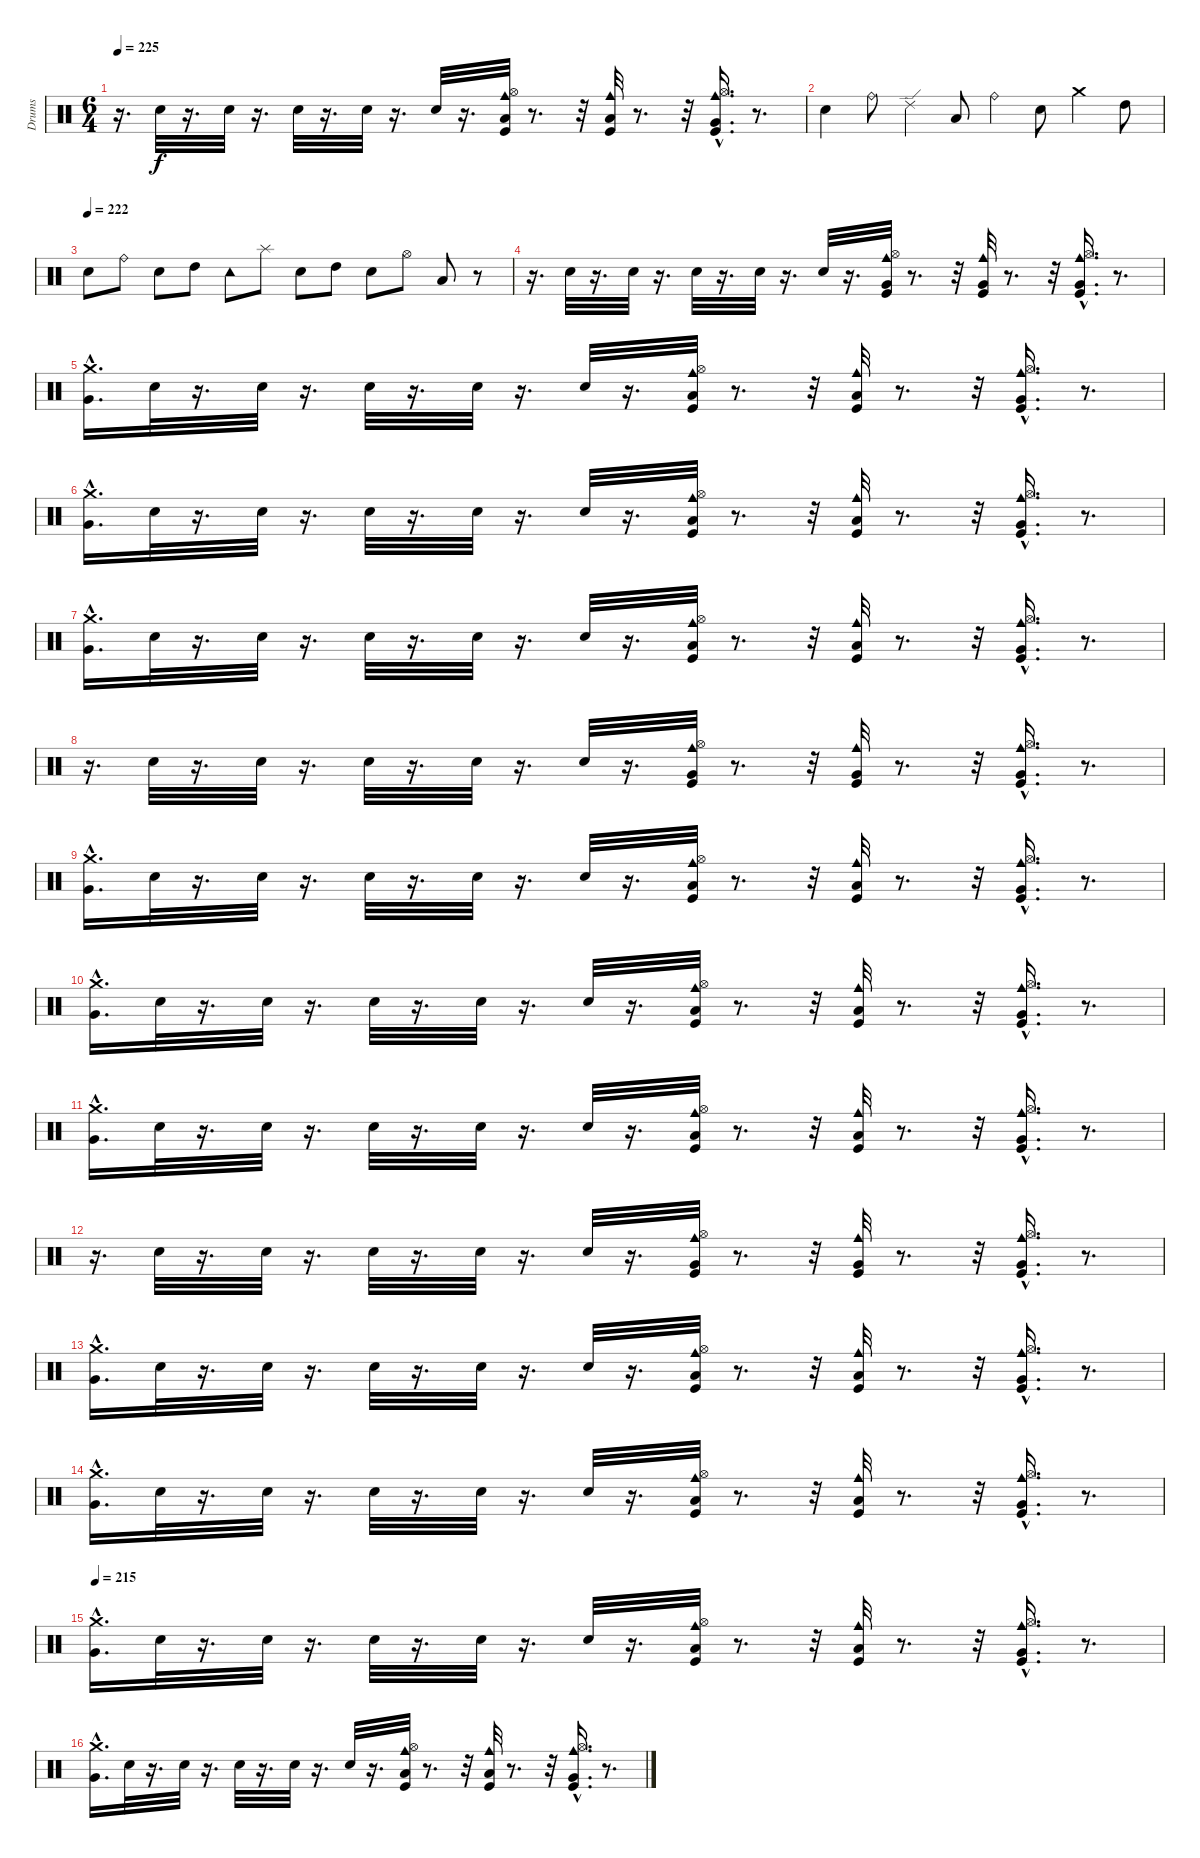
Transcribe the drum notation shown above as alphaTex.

\track ("Drums" "Drums") {instrument percussion}
\staff {score}
\articulation defaults
\ts (6 4)
\tempo 225
\clef neutral
\ks c
r.16{d dy f} "Snare (hit) 2".32 r.16{d} "Snare (hit) 2".32 r.16{d} "Snare (hit) 2".32 r.16{d} "Snare (hit) 2".32 r.16{d} "Snare (hit) 2".32 r.16{d} ("Kick (hit)" "Hi-Hat (open)" "Cowbell medium (hit)" "Low Floor Tom (hit)").32 r.8{d} r.32 ("Cowbell medium (hit)" "Kick (hit)" "Low Floor Tom (hit)").32 r.8{d} r.32 ("Hi-Hat (open)"{hac} "Kick (hit)" "Cowbell medium (hit)" "Very Low Tom (hit)").16{d} r.8{d} |
"Electric Snare (hit)".4 "Ride (bell)".8 "Ride (edge) 2".4 "Low Tom (hit)".8 "Ride (bell)".4 "Electric Snare (hit)".8 "Crash medium (hit)".4 "High Tom (hit)".8 |
\tempo (222)
"Snare (hit) 2".8 "Ride (bell)".8 "Snare (hit) 2".8 "High Tom (hit)".8 "Tambourine (hit)".8 "Splash (hit)".8 "Snare (hit) 2".8 "High Tom (hit)".8 "Snare (hit) 2".8 "Hi-Hat (open)".8 "Low Tom (hit)".8 r.8 |
r.16{d} "Snare (hit) 2".32 r.16{d} "Snare (hit) 2".32 r.16{d} "Snare (hit) 2".32 r.16{d} "Snare (hit) 2".32 r.16{d} "Electric Snare (hit)".32 r.16{d} ("Very Low Tom (hit)" "Kick (hit)" "Hi-Hat (open)" "Cowbell medium (hit)").32 r.8{d} r.32 ("Cowbell medium (hit)" "Very Low Tom (hit)" "Kick (hit)").32 r.8{d} r.32 ("Very Low Tom (hit)"{hac} "Hi-Hat (open)"{hac} "Kick (hit)" "Cowbell medium (hit)").16{d} r.8{d} |
("Very Low Tom (hit)"{hac} "Crash medium (hit)"{hac}).16{d} "Snare (hit) 2".32 r.16{d} "Snare (hit) 2".32 r.16{d} "Snare (hit) 2".32 r.16{d} "Snare (hit) 2".32 r.16{d} "Snare (hit) 2".32 r.16{d} ("Kick (hit)" "Hi-Hat (open)" "Cowbell medium (hit)" "Low Floor Tom (hit)").32 r.8{d} r.32 ("Cowbell medium (hit)" "Kick (hit)" "Low Floor Tom (hit)").32 r.8{d} r.32 ("Hi-Hat (open)"{hac} "Kick (hit)" "Cowbell medium (hit)" "Very Low Tom (hit)").16{d} r.8{d} |
("Very Low Tom (hit)"{hac} "Crash medium (hit)"{hac}).16{d} "Snare (hit) 2".32 r.16{d} "Snare (hit) 2".32 r.16{d} "Snare (hit) 2".32 r.16{d} "Snare (hit) 2".32 r.16{d} "Snare (hit) 2".32 r.16{d} ("Kick (hit)" "Hi-Hat (open)" "Cowbell medium (hit)" "Low Floor Tom (hit)").32 r.8{d} r.32 ("Cowbell medium (hit)" "Kick (hit)" "Low Floor Tom (hit)").32 r.8{d} r.32 ("Hi-Hat (open)"{hac} "Kick (hit)" "Cowbell medium (hit)" "Very Low Tom (hit)").16{d} r.8{d} |
("Very Low Tom (hit)"{hac} "Crash medium (hit)"{hac}).16{d} "Snare (hit) 2".32 r.16{d} "Snare (hit) 2".32 r.16{d} "Snare (hit) 2".32 r.16{d} "Snare (hit) 2".32 r.16{d} "Snare (hit) 2".32 r.16{d} ("Kick (hit)" "Hi-Hat (open)" "Cowbell medium (hit)" "Low Floor Tom (hit)").32 r.8{d} r.32 ("Cowbell medium (hit)" "Kick (hit)" "Low Floor Tom (hit)").32 r.8{d} r.32 ("Hi-Hat (open)"{hac} "Kick (hit)" "Cowbell medium (hit)" "Very Low Tom (hit)").16{d} r.8{d} |
r.16{d} "Snare (hit) 2".32 r.16{d} "Snare (hit) 2".32 r.16{d} "Snare (hit) 2".32 r.16{d} "Snare (hit) 2".32 r.16{d} "Electric Snare (hit)".32 r.16{d} ("Very Low Tom (hit)" "Kick (hit)" "Hi-Hat (open)" "Cowbell medium (hit)").32 r.8{d} r.32 ("Cowbell medium (hit)" "Very Low Tom (hit)" "Kick (hit)").32 r.8{d} r.32 ("Very Low Tom (hit)"{hac} "Hi-Hat (open)"{hac} "Kick (hit)" "Cowbell medium (hit)").16{d} r.8{d} |
("Very Low Tom (hit)"{hac} "Crash medium (hit)"{hac}).16{d} "Snare (hit) 2".32 r.16{d} "Snare (hit) 2".32 r.16{d} "Snare (hit) 2".32 r.16{d} "Snare (hit) 2".32 r.16{d} "Snare (hit) 2".32 r.16{d} ("Kick (hit)" "Hi-Hat (open)" "Cowbell medium (hit)" "Low Floor Tom (hit)").32 r.8{d} r.32 ("Cowbell medium (hit)" "Kick (hit)" "Low Floor Tom (hit)").32 r.8{d} r.32 ("Hi-Hat (open)"{hac} "Kick (hit)" "Cowbell medium (hit)" "Very Low Tom (hit)").16{d} r.8{d} |
("Very Low Tom (hit)"{hac} "Crash medium (hit)"{hac}).16{d} "Snare (hit) 2".32 r.16{d} "Snare (hit) 2".32 r.16{d} "Snare (hit) 2".32 r.16{d} "Snare (hit) 2".32 r.16{d} "Snare (hit) 2".32 r.16{d} ("Kick (hit)" "Hi-Hat (open)" "Cowbell medium (hit)" "Low Floor Tom (hit)").32 r.8{d} r.32 ("Cowbell medium (hit)" "Kick (hit)" "Low Floor Tom (hit)").32 r.8{d} r.32 ("Hi-Hat (open)"{hac} "Kick (hit)" "Cowbell medium (hit)" "Very Low Tom (hit)").16{d} r.8{d} |
("Very Low Tom (hit)"{hac} "Crash medium (hit)"{hac}).16{d} "Snare (hit) 2".32 r.16{d} "Snare (hit) 2".32 r.16{d} "Snare (hit) 2".32 r.16{d} "Snare (hit) 2".32 r.16{d} "Snare (hit) 2".32 r.16{d} ("Kick (hit)" "Hi-Hat (open)" "Cowbell medium (hit)" "Low Floor Tom (hit)").32 r.8{d} r.32 ("Cowbell medium (hit)" "Kick (hit)" "Low Floor Tom (hit)").32 r.8{d} r.32 ("Hi-Hat (open)"{hac} "Kick (hit)" "Cowbell medium (hit)" "Very Low Tom (hit)").16{d} r.8{d} |
r.16{d} "Snare (hit) 2".32 r.16{d} "Snare (hit) 2".32 r.16{d} "Snare (hit) 2".32 r.16{d} "Snare (hit) 2".32 r.16{d} "Electric Snare (hit)".32 r.16{d} ("Very Low Tom (hit)" "Kick (hit)" "Hi-Hat (open)" "Cowbell medium (hit)").32 r.8{d} r.32 ("Cowbell medium (hit)" "Very Low Tom (hit)" "Kick (hit)").32 r.8{d} r.32 ("Very Low Tom (hit)"{hac} "Hi-Hat (open)"{hac} "Kick (hit)" "Cowbell medium (hit)").16{d} r.8{d} |
("Very Low Tom (hit)"{hac} "Crash medium (hit)"{hac}).16{d} "Snare (hit) 2".32 r.16{d} "Snare (hit) 2".32 r.16{d} "Snare (hit) 2".32 r.16{d} "Snare (hit) 2".32 r.16{d} "Snare (hit) 2".32 r.16{d} ("Kick (hit)" "Hi-Hat (open)" "Cowbell medium (hit)" "Low Floor Tom (hit)").32 r.8{d} r.32 ("Cowbell medium (hit)" "Kick (hit)" "Low Floor Tom (hit)").32 r.8{d} r.32 ("Hi-Hat (open)"{hac} "Kick (hit)" "Cowbell medium (hit)" "Very Low Tom (hit)").16{d} r.8{d} |
("Very Low Tom (hit)"{hac} "Crash medium (hit)"{hac}).16{d} "Snare (hit) 2".32 r.16{d} "Snare (hit) 2".32 r.16{d} "Snare (hit) 2".32 r.16{d} "Snare (hit) 2".32 r.16{d} "Snare (hit) 2".32 r.16{d} ("Kick (hit)" "Hi-Hat (open)" "Cowbell medium (hit)" "Low Floor Tom (hit)").32 r.8{d} r.32 ("Cowbell medium (hit)" "Kick (hit)" "Low Floor Tom (hit)").32 r.8{d} r.32 ("Hi-Hat (open)"{hac} "Kick (hit)" "Cowbell medium (hit)" "Very Low Tom (hit)").16{d} r.8{d} |
\tempo 215
("Very Low Tom (hit)"{hac} "Crash medium (hit)"{hac}).16{d} "Snare (hit) 2".32 r.16{d} "Snare (hit) 2".32 r.16{d} "Snare (hit) 2".32 r.16{d} "Snare (hit) 2".32 r.16{d} "Snare (hit) 2".32 r.16{d} ("Kick (hit)" "Hi-Hat (open)" "Cowbell medium (hit)" "Low Floor Tom (hit)").32 r.8{d} r.32 ("Cowbell medium (hit)" "Kick (hit)" "Low Floor Tom (hit)").32 r.8{d} r.32 ("Hi-Hat (open)"{hac} "Kick (hit)" "Cowbell medium (hit)" "Very Low Tom (hit)").16{d} r.8{d} |
("Very Low Tom (hit)"{hac} "Crash medium (hit)"{hac}).16{d} "Snare (hit) 2".32 r.16{d} "Snare (hit) 2".32 r.16{d} "Snare (hit) 2".32 r.16{d} "Snare (hit) 2".32 r.16{d} "Snare (hit) 2".32 r.16{d} ("Kick (hit)" "Hi-Hat (open)" "Cowbell medium (hit)" "Low Floor Tom (hit)").32 r.8{d} r.32 ("Cowbell medium (hit)" "Kick (hit)" "Low Floor Tom (hit)").32 r.8{d} r.32 ("Hi-Hat (open)"{hac} "Kick (hit)" "Cowbell medium (hit)" "Very Low Tom (hit)").16{d} r.8{d}
